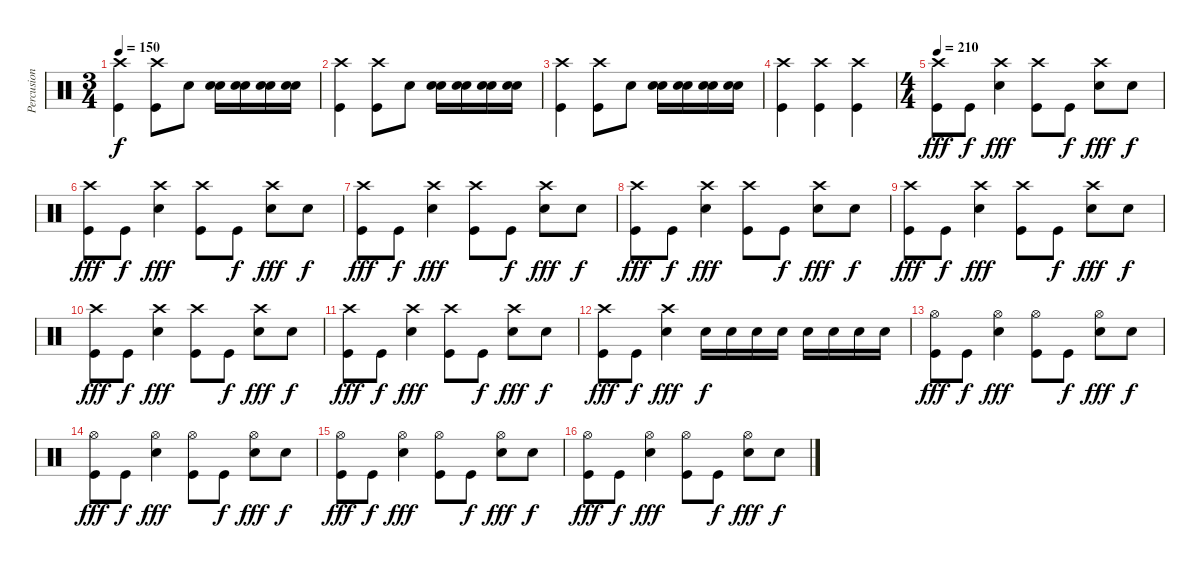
\track ("Percusion" "Percusion") {instrument percussion}
\staff {score}
\articulation defaults
\ts (3 4)
\tempo 150
\clef neutral
\ks c
("Crash high (hit)" "Kick (hit)").4{dy f} ("Crash high (hit)" "Kick (hit)").8 "Snare (hit) 2".8 ("Snare (hit) 2" "Electric Snare (hit)").16 ("Snare (hit) 2" "Electric Snare (hit)").16 ("Snare (hit) 2" "Electric Snare (hit)").16 ("Snare (hit) 2" "Electric Snare (hit)").16 |
("Crash high (hit)" "Kick (hit)").4 ("Crash high (hit)" "Kick (hit)").8 "Snare (hit) 2".8 ("Snare (hit) 2" "Electric Snare (hit)").16 ("Snare (hit) 2" "Electric Snare (hit)").16 ("Snare (hit) 2" "Electric Snare (hit)").16 ("Snare (hit) 2" "Electric Snare (hit)").16 |
("Crash high (hit)" "Kick (hit)").4 ("Crash high (hit)" "Kick (hit)").8 "Snare (hit) 2".8 ("Snare (hit) 2" "Electric Snare (hit)").16 ("Snare (hit) 2" "Electric Snare (hit)").16 ("Snare (hit) 2" "Electric Snare (hit)").16 ("Snare (hit) 2" "Electric Snare (hit)").16 |
("Crash high (hit)" "Kick (hit)").4 ("Crash high (hit)" "Kick (hit)").4 ("Crash high (hit)" "Kick (hit)").4 |
\ts (4 4)
\tempo 210
("Crash high (hit)" "Kick (hit)").8{dy fff} "Kick (hit)".8{dy f} ("Crash high (hit)" "Electric Snare (hit)").4{dy fff} ("Crash high (hit)" "Kick (hit)").8 "Kick (hit)".8{dy f} ("Crash high (hit)" "Electric Snare (hit)").8{dy fff} "Electric Snare (hit)".8{dy f} |
("Crash high (hit)" "Kick (hit)").8{dy fff} "Kick (hit)".8{dy f} ("Crash high (hit)" "Electric Snare (hit)").4{dy fff} ("Crash high (hit)" "Kick (hit)").8 "Kick (hit)".8{dy f} ("Crash high (hit)" "Electric Snare (hit)").8{dy fff} "Electric Snare (hit)".8{dy f} |
("Crash high (hit)" "Kick (hit)").8{dy fff} "Kick (hit)".8{dy f} ("Crash high (hit)" "Electric Snare (hit)").4{dy fff} ("Crash high (hit)" "Kick (hit)").8 "Kick (hit)".8{dy f} ("Crash high (hit)" "Electric Snare (hit)").8{dy fff} "Electric Snare (hit)".8{dy f} |
("Crash high (hit)" "Kick (hit)").8{dy fff} "Kick (hit)".8{dy f} ("Crash high (hit)" "Electric Snare (hit)").4{dy fff} ("Crash high (hit)" "Kick (hit)").8 "Kick (hit)".8{dy f} ("Crash high (hit)" "Electric Snare (hit)").8{dy fff} "Electric Snare (hit)".8{dy f} |
("Crash high (hit)" "Kick (hit)").8{dy fff} "Kick (hit)".8{dy f} ("Crash high (hit)" "Electric Snare (hit)").4{dy fff} ("Crash high (hit)" "Kick (hit)").8 "Kick (hit)".8{dy f} ("Crash high (hit)" "Electric Snare (hit)").8{dy fff} "Electric Snare (hit)".8{dy f} |
("Crash high (hit)" "Kick (hit)").8{dy fff} "Kick (hit)".8{dy f} ("Crash high (hit)" "Electric Snare (hit)").4{dy fff} ("Crash high (hit)" "Kick (hit)").8 "Kick (hit)".8{dy f} ("Crash high (hit)" "Electric Snare (hit)").8{dy fff} "Electric Snare (hit)".8{dy f} |
("Crash high (hit)" "Kick (hit)").8{dy fff} "Kick (hit)".8{dy f} ("Crash high (hit)" "Electric Snare (hit)").4{dy fff} ("Crash high (hit)" "Kick (hit)").8 "Kick (hit)".8{dy f} ("Crash high (hit)" "Electric Snare (hit)").8{dy fff} "Electric Snare (hit)".8{dy f} |
("Crash high (hit)" "Kick (hit)").8{dy fff} "Kick (hit)".8{dy f} ("Crash high (hit)" "Electric Snare (hit)").4{dy fff} "Electric Snare (hit)".16{dy f} "Electric Snare (hit)".16 "Electric Snare (hit)".16 "Electric Snare (hit)".16 "Electric Snare (hit)".16 "Electric Snare (hit)".16 "Electric Snare (hit)".16 "Electric Snare (hit)".16 |
("Hi-Hat (open)" "Kick (hit)").8{dy fff} "Kick (hit)".8{dy f} ("Hi-Hat (open)" "Electric Snare (hit)").4{dy fff} ("Hi-Hat (open)" "Kick (hit)").8 "Kick (hit)".8{dy f} ("Hi-Hat (open)" "Electric Snare (hit)").8{dy fff} "Electric Snare (hit)".8{dy f} |
("Hi-Hat (open)" "Kick (hit)").8{dy fff} "Kick (hit)".8{dy f} ("Hi-Hat (open)" "Electric Snare (hit)").4{dy fff} ("Hi-Hat (open)" "Kick (hit)").8 "Kick (hit)".8{dy f} ("Hi-Hat (open)" "Electric Snare (hit)").8{dy fff} "Electric Snare (hit)".8{dy f} |
("Hi-Hat (open)" "Kick (hit)").8{dy fff} "Kick (hit)".8{dy f} ("Hi-Hat (open)" "Electric Snare (hit)").4{dy fff} ("Hi-Hat (open)" "Kick (hit)").8 "Kick (hit)".8{dy f} ("Hi-Hat (open)" "Electric Snare (hit)").8{dy fff} "Electric Snare (hit)".8{dy f} |
("Hi-Hat (open)" "Kick (hit)").8{dy fff} "Kick (hit)".8{dy f} ("Hi-Hat (open)" "Electric Snare (hit)").4{dy fff} ("Hi-Hat (open)" "Kick (hit)").8 "Kick (hit)".8{dy f} ("Hi-Hat (open)" "Electric Snare (hit)").8{dy fff} "Electric Snare (hit)".8{dy f}
